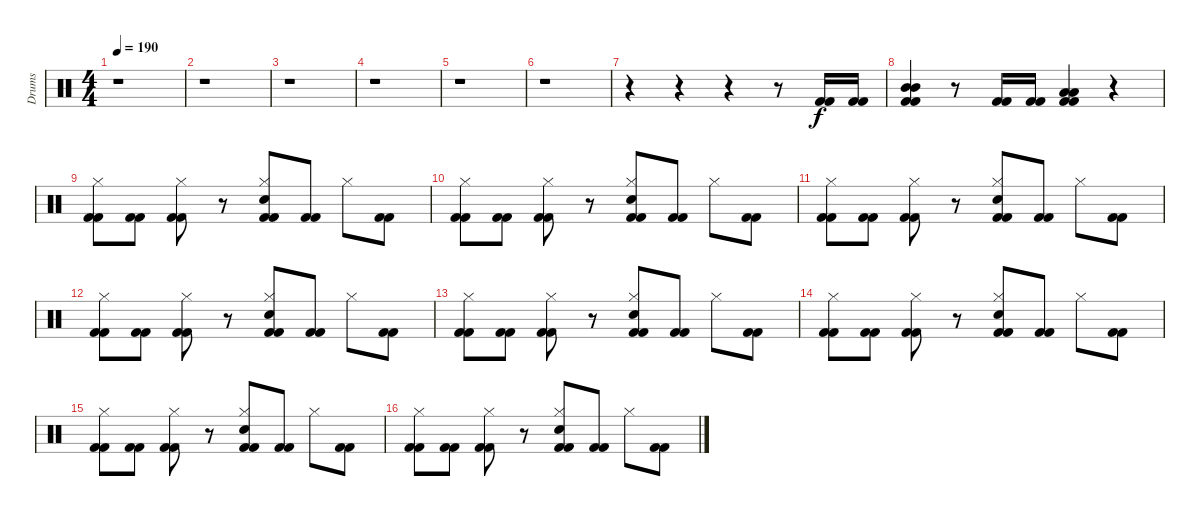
\track ("Drums" "Drums") {instrument percussion}
\staff {score}
\articulation defaults
\ts (4 4)
\tempo 190
\clef neutral
\ks c
r.1{dy f} |
r.1 |
r.1 |
r.1 |
r.1 |
r.1 |
r.4 r.4 r.4 r.8 ("Kick (hit) 2" "Kick (hit) 2").16 ("Kick (hit) 2" "Kick (hit) 2").16 |
("Mid Tom (hit)" "Mid Tom (hit)" "Kick (hit) 2" "Kick (hit) 2").4 r.8 ("Kick (hit) 2" "Kick (hit) 2").16 ("Kick (hit) 2" "Kick (hit) 2").16 ("Low Tom (hit)" "Low Tom (hit)" "Kick (hit) 2" "Kick (hit) 2").4 r.4 |
("Hi-Hat (closed)" "Kick (hit) 2" "Kick (hit) 2").8 ("Kick (hit) 2" "Kick (hit) 2").8 ("Hi-Hat (closed)" "Kick (hit) 2" "Kick (hit) 2").8 r.8 ("Hi-Hat (closed)" "Snare (hit) 2" "Kick (hit) 2" "Kick (hit) 2").8 ("Kick (hit) 2" "Kick (hit) 2").8 "Hi-Hat (closed)".8 ("Kick (hit) 2" "Kick (hit) 2").8 |
("Hi-Hat (closed)" "Kick (hit) 2" "Kick (hit) 2").8 ("Kick (hit) 2" "Kick (hit) 2").8 ("Hi-Hat (closed)" "Kick (hit) 2" "Kick (hit) 2").8 r.8 ("Hi-Hat (closed)" "Snare (hit) 2" "Kick (hit) 2" "Kick (hit) 2").8 ("Kick (hit) 2" "Kick (hit) 2").8 "Hi-Hat (closed)".8 ("Kick (hit) 2" "Kick (hit) 2").8 |
("Hi-Hat (closed)" "Kick (hit) 2" "Kick (hit) 2").8 ("Kick (hit) 2" "Kick (hit) 2").8 ("Hi-Hat (closed)" "Kick (hit) 2" "Kick (hit) 2").8 r.8 ("Hi-Hat (closed)" "Snare (hit) 2" "Kick (hit) 2" "Kick (hit) 2").8 ("Kick (hit) 2" "Kick (hit) 2").8 "Hi-Hat (closed)".8 ("Kick (hit) 2" "Kick (hit) 2").8 |
("Hi-Hat (closed)" "Kick (hit) 2" "Kick (hit) 2").8 ("Kick (hit) 2" "Kick (hit) 2").8 ("Hi-Hat (closed)" "Kick (hit) 2" "Kick (hit) 2").8 r.8 ("Hi-Hat (closed)" "Snare (hit) 2" "Kick (hit) 2" "Kick (hit) 2").8 ("Kick (hit) 2" "Kick (hit) 2").8 "Hi-Hat (closed)".8 ("Kick (hit) 2" "Kick (hit) 2").8 |
("Hi-Hat (closed)" "Kick (hit) 2" "Kick (hit) 2").8 ("Kick (hit) 2" "Kick (hit) 2").8 ("Hi-Hat (closed)" "Kick (hit) 2" "Kick (hit) 2").8 r.8 ("Hi-Hat (closed)" "Snare (hit) 2" "Kick (hit) 2" "Kick (hit) 2").8 ("Kick (hit) 2" "Kick (hit) 2").8 "Hi-Hat (closed)".8 ("Kick (hit) 2" "Kick (hit) 2").8 |
("Hi-Hat (closed)" "Kick (hit) 2" "Kick (hit) 2").8 ("Kick (hit) 2" "Kick (hit) 2").8 ("Hi-Hat (closed)" "Kick (hit) 2" "Kick (hit) 2").8 r.8 ("Hi-Hat (closed)" "Snare (hit) 2" "Kick (hit) 2" "Kick (hit) 2").8 ("Kick (hit) 2" "Kick (hit) 2").8 "Hi-Hat (closed)".8 ("Kick (hit) 2" "Kick (hit) 2").8 |
("Hi-Hat (closed)" "Kick (hit) 2" "Kick (hit) 2").8 ("Kick (hit) 2" "Kick (hit) 2").8 ("Hi-Hat (closed)" "Kick (hit) 2" "Kick (hit) 2").8 r.8 ("Hi-Hat (closed)" "Snare (hit) 2" "Kick (hit) 2" "Kick (hit) 2").8 ("Kick (hit) 2" "Kick (hit) 2").8 "Hi-Hat (closed)".8 ("Kick (hit) 2" "Kick (hit) 2").8 |
("Hi-Hat (closed)" "Kick (hit) 2" "Kick (hit) 2").8 ("Kick (hit) 2" "Kick (hit) 2").8 ("Hi-Hat (closed)" "Kick (hit) 2" "Kick (hit) 2").8 r.8 ("Hi-Hat (closed)" "Snare (hit) 2" "Kick (hit) 2" "Kick (hit) 2").8 ("Kick (hit) 2" "Kick (hit) 2").8 "Hi-Hat (closed)".8 ("Kick (hit) 2" "Kick (hit) 2").8
